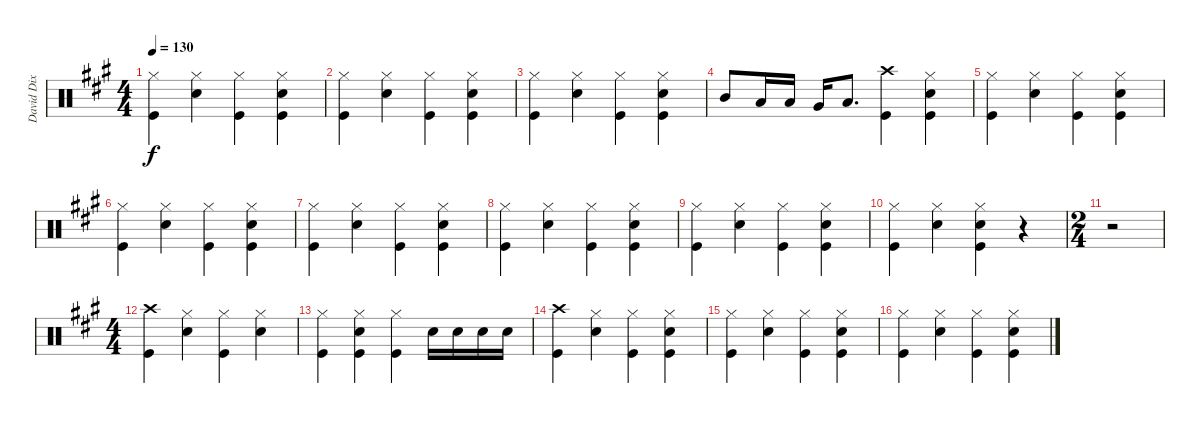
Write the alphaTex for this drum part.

\track ("David Dix Drums" "David Dix ") {instrument percussion}
\staff {score}
\articulation defaults
\ts (4 4)
\tempo 130
\clef neutral
\ks f#minor
("Hi-Hat (closed)" "Kick (hit)").4{dy f} ("Hi-Hat (closed)" "Snare (hit) 2").4 ("Hi-Hat (closed)" "Kick (hit)").4 ("Hi-Hat (closed)" "Snare (hit) 2" "Kick (hit)").4 |
("Hi-Hat (closed)" "Kick (hit)").4 ("Hi-Hat (closed)" "Snare (hit) 2").4 ("Hi-Hat (closed)" "Kick (hit)").4 ("Hi-Hat (closed)" "Snare (hit) 2" "Kick (hit)").4 |
("Hi-Hat (closed)" "Kick (hit)").4 ("Hi-Hat (closed)" "Snare (hit) 2").4 ("Hi-Hat (closed)" "Kick (hit)").4 ("Hi-Hat (closed)" "Snare (hit) 2" "Kick (hit)").4 |
"Mid Tom (hit)".8{volume 14} "Low Tom (hit)".16 "Low Tom (hit)".16 "Very Low Tom (hit)".16 "Low Floor Tom (hit)".8{d} ("Crash high (hit)" "Kick (hit)").4 ("Hi-Hat (closed)" "Snare (hit) 2" "Kick (hit)").4 |
("Hi-Hat (closed)" "Kick (hit)").4 ("Hi-Hat (closed)" "Snare (hit) 2").4 ("Hi-Hat (closed)" "Kick (hit)").4 ("Hi-Hat (closed)" "Snare (hit) 2" "Kick (hit)").4 |
("Hi-Hat (closed)" "Kick (hit)").4 ("Hi-Hat (closed)" "Snare (hit) 2").4 ("Hi-Hat (closed)" "Kick (hit)").4 ("Hi-Hat (closed)" "Snare (hit) 2" "Kick (hit)").4 |
("Hi-Hat (closed)" "Kick (hit)").4 ("Hi-Hat (closed)" "Snare (hit) 2").4 ("Hi-Hat (closed)" "Kick (hit)").4 ("Hi-Hat (closed)" "Snare (hit) 2" "Kick (hit)").4 |
("Hi-Hat (closed)" "Kick (hit)").4 ("Hi-Hat (closed)" "Snare (hit) 2").4 ("Hi-Hat (closed)" "Kick (hit)").4 ("Hi-Hat (closed)" "Snare (hit) 2" "Kick (hit)").4 |
("Hi-Hat (closed)" "Kick (hit)").4 ("Hi-Hat (closed)" "Snare (hit) 2").4 ("Hi-Hat (closed)" "Kick (hit)").4 ("Hi-Hat (closed)" "Snare (hit) 2" "Kick (hit)").4 |
("Hi-Hat (closed)" "Kick (hit)").4 ("Hi-Hat (closed)" "Snare (hit) 2").4 ("Hi-Hat (closed)" "Snare (hit) 2" "Kick (hit)").4 r.4 |
\ts (2 4)
r.2 |
\ts (4 4)
("Crash high (hit)" "Kick (hit)").4 ("Hi-Hat (closed)" "Snare (hit) 2").4 ("Hi-Hat (closed)" "Kick (hit)").4 ("Hi-Hat (closed)" "Snare (hit) 2").4 |
("Hi-Hat (closed)" "Kick (hit)").4 ("Hi-Hat (closed)" "Snare (hit) 2" "Kick (hit)").4 ("Hi-Hat (closed)" "Kick (hit)").4 "Snare (hit) 2".16 "Snare (hit) 2".16 "Snare (hit) 2".16 "Snare (hit) 2".16 |
("Crash high (hit)" "Kick (hit)").4 ("Hi-Hat (closed)" "Snare (hit) 2").4 ("Hi-Hat (closed)" "Kick (hit)").4 ("Hi-Hat (closed)" "Snare (hit) 2" "Kick (hit)").4 |
("Hi-Hat (closed)" "Kick (hit)").4 ("Hi-Hat (closed)" "Snare (hit) 2").4 ("Hi-Hat (closed)" "Kick (hit)").4 ("Hi-Hat (closed)" "Snare (hit) 2" "Kick (hit)").4 |
("Hi-Hat (closed)" "Kick (hit)").4 ("Hi-Hat (closed)" "Snare (hit) 2").4 ("Hi-Hat (closed)" "Kick (hit)").4 ("Hi-Hat (closed)" "Snare (hit) 2" "Kick (hit)").4
